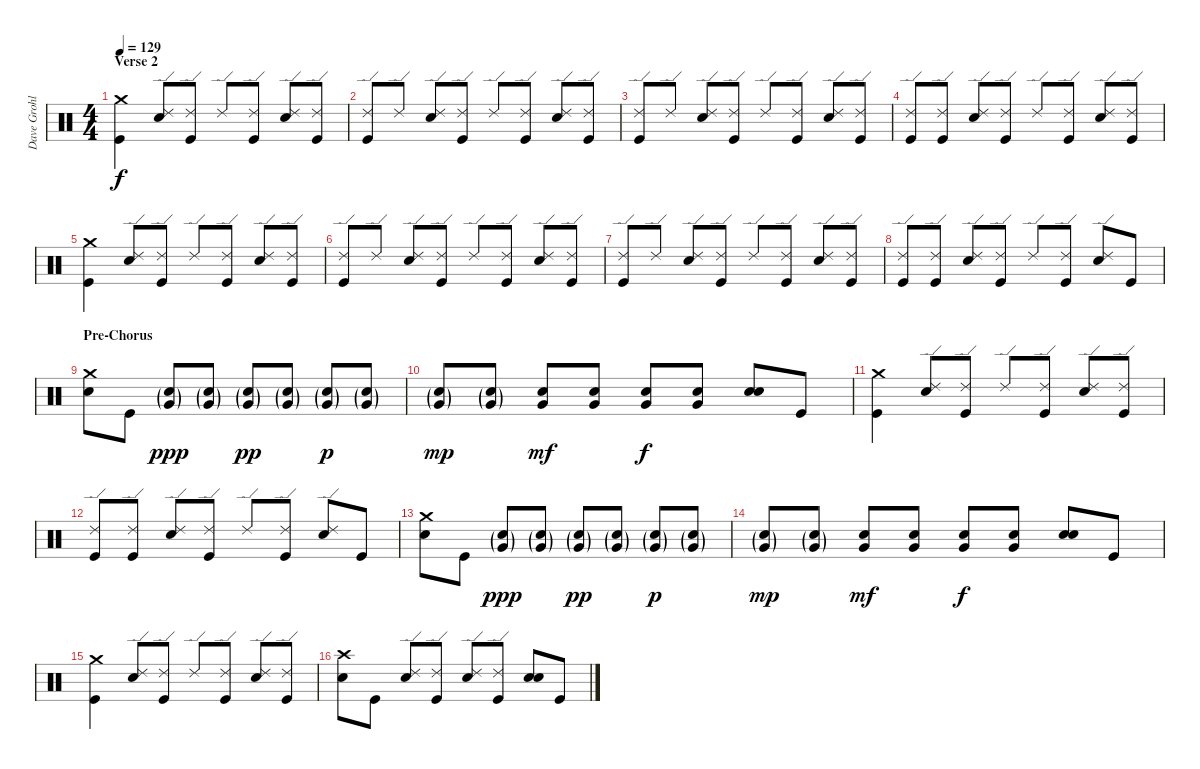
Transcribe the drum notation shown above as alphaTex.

\track ("Dave Grohl" "Dave Grohl") {instrument percussion}
\staff {score}
\articulation defaults
\ts (4 4)
\section ("" "Verse 2")
\tempo 129
\clef neutral
\ks c
("Crash medium (hit)" "Kick (hit)").4{dy f} ("Ride (edge) 2" "Electric Snare (hit)").8 ("Ride (edge) 2" "Kick (hit)").8 "Ride (edge) 2".8 ("Ride (edge) 2" "Kick (hit)").8 ("Ride (edge) 2" "Electric Snare (hit)").8 ("Ride (edge) 2" "Kick (hit)").8 |
("Ride (edge) 2" "Kick (hit)").8 "Ride (edge) 2".8 ("Ride (edge) 2" "Electric Snare (hit)").8 ("Ride (edge) 2" "Kick (hit)").8 "Ride (edge) 2".8 ("Ride (edge) 2" "Kick (hit)").8 ("Ride (edge) 2" "Electric Snare (hit)").8 ("Ride (edge) 2" "Kick (hit)").8 |
("Ride (edge) 2" "Kick (hit)").8 "Ride (edge) 2".8 ("Ride (edge) 2" "Electric Snare (hit)").8 ("Ride (edge) 2" "Kick (hit)").8 "Ride (edge) 2".8 ("Ride (edge) 2" "Kick (hit)").8 ("Ride (edge) 2" "Electric Snare (hit)").8 ("Ride (edge) 2" "Kick (hit)").8 |
("Ride (edge) 2" "Kick (hit)").8 ("Ride (edge) 2" "Kick (hit)").8 ("Ride (edge) 2" "Electric Snare (hit)").8 ("Ride (edge) 2" "Kick (hit)").8 "Ride (edge) 2".8 ("Ride (edge) 2" "Kick (hit)").8 ("Ride (edge) 2" "Electric Snare (hit)").8 ("Ride (edge) 2" "Kick (hit)").8 |
("Crash medium (hit)" "Kick (hit)").4 ("Ride (edge) 2" "Electric Snare (hit)").8 ("Ride (edge) 2" "Kick (hit)").8 "Ride (edge) 2".8 ("Ride (edge) 2" "Kick (hit)").8 ("Ride (edge) 2" "Electric Snare (hit)").8 ("Ride (edge) 2" "Kick (hit)").8 |
("Ride (edge) 2" "Kick (hit)").8 "Ride (edge) 2".8 ("Ride (edge) 2" "Electric Snare (hit)").8 ("Ride (edge) 2" "Kick (hit)").8 "Ride (edge) 2".8 ("Ride (edge) 2" "Kick (hit)").8 ("Ride (edge) 2" "Electric Snare (hit)").8 ("Ride (edge) 2" "Kick (hit)").8 |
("Ride (edge) 2" "Kick (hit)").8 "Ride (edge) 2".8 ("Ride (edge) 2" "Electric Snare (hit)").8 ("Ride (edge) 2" "Kick (hit)").8 "Ride (edge) 2".8 ("Ride (edge) 2" "Kick (hit)").8 ("Ride (edge) 2" "Electric Snare (hit)").8 ("Ride (edge) 2" "Kick (hit)").8 |
("Ride (edge) 2" "Kick (hit)").8 ("Ride (edge) 2" "Kick (hit)").8 ("Ride (edge) 2" "Electric Snare (hit)").8 ("Ride (edge) 2" "Kick (hit)").8 "Ride (edge) 2".8 ("Ride (edge) 2" "Kick (hit)").8 ("Ride (edge) 2" "Electric Snare (hit)").8 "Kick (hit)".8 |
\section ("" "Pre-Chorus")
("Crash medium (hit)" "Electric Snare (hit)").8 "Kick (hit)".8 ("Electric Snare (hit)"{g} "Very Low Tom (hit)"{g}).8{dy ppp} ("Electric Snare (hit)"{g} "Very Low Tom (hit)"{g}).8 ("Electric Snare (hit)"{g} "Very Low Tom (hit)"{g}).8{dy pp} ("Electric Snare (hit)"{g} "Very Low Tom (hit)"{g}).8 ("Electric Snare (hit)"{g} "Very Low Tom (hit)"{g}).8{dy p} ("Electric Snare (hit)"{g} "Very Low Tom (hit)"{g}).8 |
("Electric Snare (hit)"{g} "Very Low Tom (hit)"{g}).8{dy mp} ("Electric Snare (hit)"{g} "Very Low Tom (hit)"{g}).8 ("Electric Snare (hit)" "Very Low Tom (hit)").8{dy mf} ("Electric Snare (hit)" "Very Low Tom (hit)").8 ("Electric Snare (hit)" "Very Low Tom (hit)").8{dy f} ("Electric Snare (hit)" "Very Low Tom (hit)").8 ("Electric Snare (hit)" "Electric Snare (hit)").8{bd 120} "Kick (hit)".8 |
("Crash medium (hit)" "Kick (hit)").4 ("Ride (edge) 2" "Electric Snare (hit)").8 ("Ride (edge) 2" "Kick (hit)").8 "Ride (edge) 2".8 ("Ride (edge) 2" "Kick (hit)").8 ("Ride (edge) 2" "Electric Snare (hit)").8 ("Ride (edge) 2" "Kick (hit)").8 |
("Ride (edge) 2" "Kick (hit)").8 ("Ride (edge) 2" "Kick (hit)").8 ("Ride (edge) 2" "Electric Snare (hit)").8 ("Ride (edge) 2" "Kick (hit)").8 "Ride (edge) 2".8 ("Ride (edge) 2" "Kick (hit)").8 ("Ride (edge) 2" "Electric Snare (hit)").8 "Kick (hit)".8 |
("Crash medium (hit)" "Electric Snare (hit)").8 "Kick (hit)".8 ("Electric Snare (hit)"{g} "Very Low Tom (hit)"{g}).8{dy ppp} ("Electric Snare (hit)"{g} "Very Low Tom (hit)"{g}).8 ("Electric Snare (hit)"{g} "Very Low Tom (hit)"{g}).8{dy pp} ("Electric Snare (hit)"{g} "Very Low Tom (hit)"{g}).8 ("Electric Snare (hit)"{g} "Very Low Tom (hit)"{g}).8{dy p} ("Electric Snare (hit)"{g} "Very Low Tom (hit)"{g}).8 |
("Electric Snare (hit)"{g} "Very Low Tom (hit)"{g}).8{dy mp} ("Electric Snare (hit)"{g} "Very Low Tom (hit)"{g}).8 ("Electric Snare (hit)" "Very Low Tom (hit)").8{dy mf} ("Electric Snare (hit)" "Very Low Tom (hit)").8 ("Electric Snare (hit)" "Very Low Tom (hit)").8{dy f} ("Electric Snare (hit)" "Very Low Tom (hit)").8 ("Electric Snare (hit)" "Electric Snare (hit)").8{bd 120} "Kick (hit)".8 |
("Crash medium (hit)" "Kick (hit)").4 ("Ride (edge) 2" "Electric Snare (hit)").8 ("Ride (edge) 2" "Kick (hit)").8 "Ride (edge) 2".8 ("Ride (edge) 2" "Kick (hit)").8 ("Ride (edge) 2" "Electric Snare (hit)").8 ("Ride (edge) 2" "Kick (hit)").8 |
("Crash high (hit)" "Electric Snare (hit)").8 "Kick (hit)".8 ("Ride (edge) 2" "Electric Snare (hit)").8 ("Ride (edge) 2" "Kick (hit)").8 ("Ride (edge) 2" "Electric Snare (hit)").8 ("Ride (edge) 2" "Kick (hit)").8 ("Electric Snare (hit)" "Electric Snare (hit)").8{bd 120} "Kick (hit)".8
